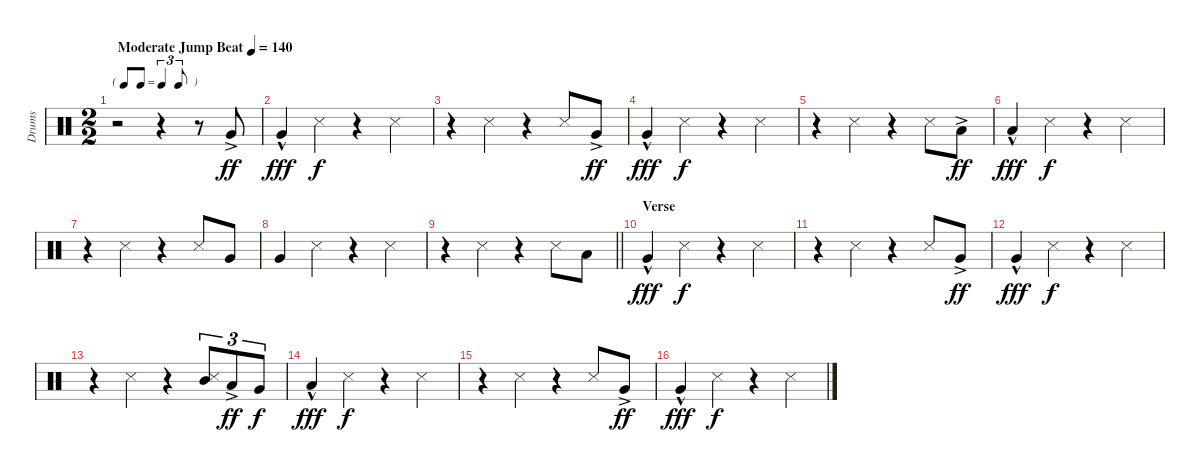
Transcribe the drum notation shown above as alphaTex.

\track ("Drums" "Drums") {instrument percussion}
\staff {score}
\articulation defaults
\ts (2 2)
\tf triplet8th
\tempo (140 "Moderate Jump Beat")
\clef neutral
\ks c
r.2{dy ff} r.4 r.8 "Very Low Tom (hit)"{ac}.8 |
"Very Low Tom (hit)"{hac}.4{dy fff} "Metronome (hit)".4{dy f} r.4 "Metronome (hit)".4 |
r.4 "Metronome (hit)".4 r.4 "Metronome (hit)".8 "Very Low Tom (hit)"{ac}.8{dy ff} |
"Very Low Tom (hit)"{hac}.4{dy fff} "Metronome (hit)".4{dy f} r.4 "Metronome (hit)".4 |
r.4 "Metronome (hit)".4 r.4 "Metronome (hit)".8 "Low Floor Tom (hit)"{ac}.8{dy ff} |
"Low Floor Tom (hit)"{hac}.4{dy fff} "Metronome (hit)".4{dy f} r.4 "Metronome (hit)".4 |
r.4 "Metronome (hit)".4 r.4 "Metronome (hit)".8 "Very Low Tom (hit)".8 |
"Very Low Tom (hit)".4 "Metronome (hit)".4 r.4 "Metronome (hit)".4 |
\barLineRight lightlight
r.4 "Metronome (hit)".4 r.4 "Metronome (hit)".8 "Low Floor Tom (hit)".8 |
\section ("" "Verse")
"Very Low Tom (hit)"{hac}.4{dy fff} "Metronome (hit)".4{dy f} r.4 "Metronome (hit)".4 |
r.4 "Metronome (hit)".4 r.4 "Metronome (hit)".8 "Very Low Tom (hit)"{ac}.8{dy ff} |
"Very Low Tom (hit)"{hac}.4{dy fff} "Metronome (hit)".4{dy f} r.4 "Metronome (hit)".4 |
r.4 "Metronome (hit)".4 r.4 ("Metronome (hit)" "Mid Tom (hit)").8{tu (3 2)} "Low Tom (hit)"{ac}.8{tu (3 2) dy ff} "Very Low Tom (hit)".8{tu (3 2) dy f} |
"Low Floor Tom (hit)"{hac}.4{dy fff} "Metronome (hit)".4{dy f} r.4 "Metronome (hit)".4 |
r.4 "Metronome (hit)".4 r.4 "Metronome (hit)".8 "Very Low Tom (hit)"{ac}.8{dy ff} |
"Very Low Tom (hit)"{hac}.4{dy fff} "Metronome (hit)".4{dy f} r.4 "Metronome (hit)".4
